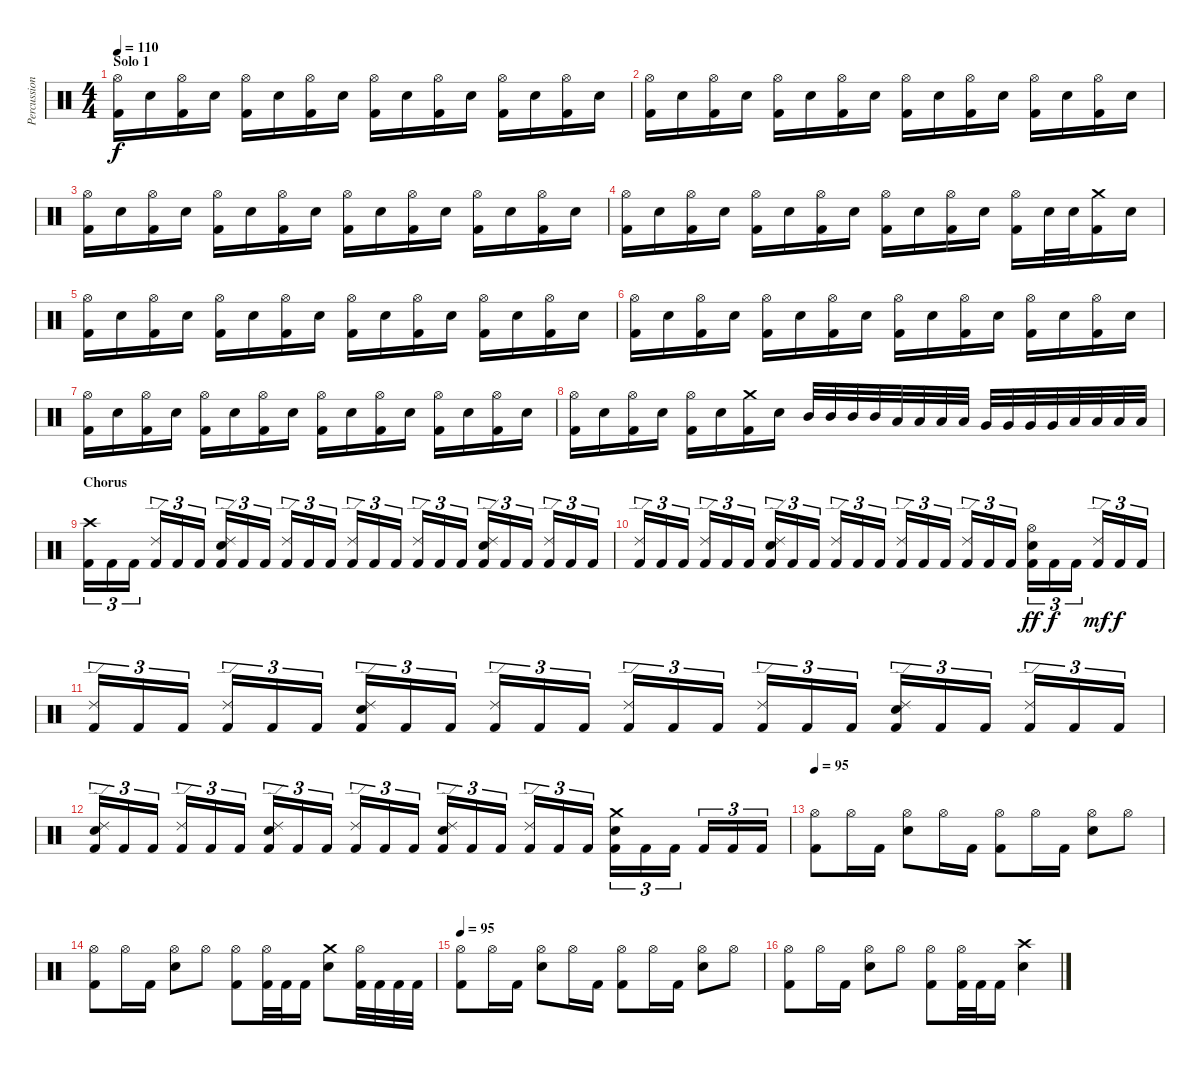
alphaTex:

\track ("Percussions" "Percussion") {instrument percussion}
\staff {score}
\articulation defaults
\ts (4 4)
\section ("" "Solo 1")
\tempo 110
\clef neutral
\ks c
("Hi-Hat (open)" "Kick (hit) 2").16{dy f} "Electric Snare (hit)".16 ("Hi-Hat (open)" "Kick (hit) 2").16 "Electric Snare (hit)".16 ("Hi-Hat (open)" "Kick (hit) 2").16 "Electric Snare (hit)".16 ("Hi-Hat (open)" "Kick (hit) 2").16 "Electric Snare (hit)".16 ("Hi-Hat (open)" "Kick (hit) 2").16 "Electric Snare (hit)".16 ("Hi-Hat (open)" "Kick (hit) 2").16 "Electric Snare (hit)".16 ("Hi-Hat (open)" "Kick (hit) 2").16 "Electric Snare (hit)".16 ("Hi-Hat (open)" "Kick (hit) 2").16 "Electric Snare (hit)".16 |
("Hi-Hat (open)" "Kick (hit) 2").16 "Electric Snare (hit)".16 ("Hi-Hat (open)" "Kick (hit) 2").16 "Electric Snare (hit)".16 ("Hi-Hat (open)" "Kick (hit) 2").16 "Electric Snare (hit)".16 ("Hi-Hat (open)" "Kick (hit) 2").16 "Electric Snare (hit)".16 ("Hi-Hat (open)" "Kick (hit) 2").16 "Electric Snare (hit)".16 ("Hi-Hat (open)" "Kick (hit) 2").16 "Electric Snare (hit)".16 ("Hi-Hat (open)" "Kick (hit) 2").16 "Electric Snare (hit)".16 ("Hi-Hat (open)" "Kick (hit) 2").16 "Electric Snare (hit)".16 |
("Hi-Hat (open)" "Kick (hit) 2").16 "Electric Snare (hit)".16 ("Hi-Hat (open)" "Kick (hit) 2").16 "Electric Snare (hit)".16 ("Hi-Hat (open)" "Kick (hit) 2").16 "Electric Snare (hit)".16 ("Hi-Hat (open)" "Kick (hit) 2").16 "Electric Snare (hit)".16 ("Hi-Hat (open)" "Kick (hit) 2").16 "Electric Snare (hit)".16 ("Hi-Hat (open)" "Kick (hit) 2").16 "Electric Snare (hit)".16 ("Hi-Hat (open)" "Kick (hit) 2").16 "Electric Snare (hit)".16 ("Hi-Hat (open)" "Kick (hit) 2").16 "Electric Snare (hit)".16 |
("Hi-Hat (open)" "Kick (hit) 2").16 "Electric Snare (hit)".16 ("Hi-Hat (open)" "Kick (hit) 2").16 "Electric Snare (hit)".16 ("Hi-Hat (open)" "Kick (hit) 2").16 "Electric Snare (hit)".16 ("Hi-Hat (open)" "Kick (hit) 2").16 "Electric Snare (hit)".16 ("Hi-Hat (open)" "Kick (hit) 2").16 "Electric Snare (hit)".16 ("Hi-Hat (open)" "Kick (hit) 2").16 "Electric Snare (hit)".16 ("Hi-Hat (open)" "Kick (hit) 2").16 "Electric Snare (hit)".32 "Electric Snare (hit)".32 ("Crash medium (hit)" "Kick (hit) 2").16 "Electric Snare (hit)".16 |
("Hi-Hat (open)" "Kick (hit) 2").16 "Electric Snare (hit)".16 ("Hi-Hat (open)" "Kick (hit) 2").16 "Electric Snare (hit)".16 ("Hi-Hat (open)" "Kick (hit) 2").16 "Electric Snare (hit)".16 ("Hi-Hat (open)" "Kick (hit) 2").16 "Electric Snare (hit)".16 ("Hi-Hat (open)" "Kick (hit) 2").16 "Electric Snare (hit)".16 ("Hi-Hat (open)" "Kick (hit) 2").16 "Electric Snare (hit)".16 ("Hi-Hat (open)" "Kick (hit) 2").16 "Electric Snare (hit)".16 ("Hi-Hat (open)" "Kick (hit) 2").16 "Electric Snare (hit)".16 |
("Hi-Hat (open)" "Kick (hit) 2").16 "Electric Snare (hit)".16 ("Hi-Hat (open)" "Kick (hit) 2").16 "Electric Snare (hit)".16 ("Hi-Hat (open)" "Kick (hit) 2").16 "Electric Snare (hit)".16 ("Hi-Hat (open)" "Kick (hit) 2").16 "Electric Snare (hit)".16 ("Hi-Hat (open)" "Kick (hit) 2").16 "Electric Snare (hit)".16 ("Hi-Hat (open)" "Kick (hit) 2").16 "Electric Snare (hit)".16 ("Hi-Hat (open)" "Kick (hit) 2").16 "Electric Snare (hit)".16 ("Hi-Hat (open)" "Kick (hit) 2").16 "Electric Snare (hit)".16 |
("Hi-Hat (open)" "Kick (hit) 2").16 "Electric Snare (hit)".16 ("Hi-Hat (open)" "Kick (hit) 2").16 "Electric Snare (hit)".16 ("Hi-Hat (open)" "Kick (hit) 2").16 "Electric Snare (hit)".16 ("Hi-Hat (open)" "Kick (hit) 2").16 "Electric Snare (hit)".16 ("Hi-Hat (open)" "Kick (hit) 2").16 "Electric Snare (hit)".16 ("Hi-Hat (open)" "Kick (hit) 2").16 "Electric Snare (hit)".16 ("Hi-Hat (open)" "Kick (hit) 2").16 "Electric Snare (hit)".16 ("Hi-Hat (open)" "Kick (hit) 2").16 "Electric Snare (hit)".16 |
("Hi-Hat (open)" "Kick (hit) 2").16 "Electric Snare (hit)".16 ("Hi-Hat (open)" "Kick (hit) 2").16 "Electric Snare (hit)".16 ("Hi-Hat (open)" "Kick (hit) 2").16 "Electric Snare (hit)".16 ("Crash medium (hit)" "Kick (hit) 2").16 "Electric Snare (hit)".16 "Mid Tom (hit)".32 "Mid Tom (hit)".32 "Mid Tom (hit)".32 "Mid Tom (hit)".32 "Low Tom (hit)".32 "Low Tom (hit)".32 "Low Tom (hit)".32 "Low Tom (hit)".32 "Very Low Tom (hit)".32 "Very Low Tom (hit)".32 "Very Low Tom (hit)".32 "Very Low Tom (hit)".32 "Low Floor Tom (hit)".32 "Low Floor Tom (hit)".32 "Low Floor Tom (hit)".32 "Low Floor Tom (hit)".32 |
\section ("" "Chorus")
("Crash high (hit)" "Kick (hit) 2").16{tu (3 2)} "Kick (hit) 2".16{tu (3 2)} "Kick (hit) 2".16{tu (3 2)} ("Ride (edge) 2" "Kick (hit) 2").16{tu (3 2)} "Kick (hit) 2".16{tu (3 2)} "Kick (hit) 2".16{tu (3 2)} ("Ride (edge) 2" "Electric Snare (hit)" "Kick (hit) 2").16{tu (3 2)} "Kick (hit) 2".16{tu (3 2)} "Kick (hit) 2".16{tu (3 2)} ("Ride (edge) 2" "Kick (hit) 2").16{tu (3 2)} "Kick (hit) 2".16{tu (3 2)} "Kick (hit) 2".16{tu (3 2)} ("Ride (edge) 2" "Kick (hit) 2").16{tu (3 2)} "Kick (hit) 2".16{tu (3 2)} "Kick (hit) 2".16{tu (3 2)} ("Ride (edge) 2" "Kick (hit) 2").16{tu (3 2)} "Kick (hit) 2".16{tu (3 2)} "Kick (hit) 2".16{tu (3 2)} ("Ride (edge) 2" "Electric Snare (hit)" "Kick (hit) 2").16{tu (3 2)} "Kick (hit) 2".16{tu (3 2)} "Kick (hit) 2".16{tu (3 2)} ("Ride (edge) 2" "Kick (hit) 2").16{tu (3 2)} "Kick (hit) 2".16{tu (3 2)} "Kick (hit) 2".16{tu (3 2)} |
("Ride (edge) 2" "Kick (hit) 2").16{tu (3 2)} "Kick (hit) 2".16{tu (3 2)} "Kick (hit) 2".16{tu (3 2)} ("Ride (edge) 2" "Kick (hit) 2").16{tu (3 2)} "Kick (hit) 2".16{tu (3 2)} "Kick (hit) 2".16{tu (3 2)} ("Ride (edge) 2" "Electric Snare (hit)" "Kick (hit) 2").16{tu (3 2)} "Kick (hit) 2".16{tu (3 2)} "Kick (hit) 2".16{tu (3 2)} ("Ride (edge) 2" "Kick (hit) 2").16{tu (3 2)} "Kick (hit) 2".16{tu (3 2)} "Kick (hit) 2".16{tu (3 2)} ("Ride (edge) 2" "Kick (hit) 2").16{tu (3 2)} "Kick (hit) 2".16{tu (3 2)} "Kick (hit) 2".16{tu (3 2)} ("Ride (edge) 2" "Kick (hit) 2").16{tu (3 2)} "Kick (hit) 2".16{tu (3 2)} "Kick (hit) 2".16{tu (3 2)} ("Hi-Hat (open)" "Electric Snare (hit)" "Kick (hit) 2").16{tu (3 2) dy ff} "Kick (hit) 2".16{tu (3 2) dy f} "Kick (hit) 2".16{tu (3 2)} ("Ride (edge) 2" "Kick (hit) 2").16{tu (3 2) dy mf} "Kick (hit) 2".16{tu (3 2) dy f} "Kick (hit) 2".16{tu (3 2)} |
("Ride (edge) 2" "Kick (hit) 2").16{tu (3 2)} "Kick (hit) 2".16{tu (3 2)} "Kick (hit) 2".16{tu (3 2)} ("Ride (edge) 2" "Kick (hit) 2").16{tu (3 2)} "Kick (hit) 2".16{tu (3 2)} "Kick (hit) 2".16{tu (3 2)} ("Ride (edge) 2" "Electric Snare (hit)" "Kick (hit) 2").16{tu (3 2)} "Kick (hit) 2".16{tu (3 2)} "Kick (hit) 2".16{tu (3 2)} ("Ride (edge) 2" "Kick (hit) 2").16{tu (3 2)} "Kick (hit) 2".16{tu (3 2)} "Kick (hit) 2".16{tu (3 2)} ("Ride (edge) 2" "Kick (hit) 2").16{tu (3 2)} "Kick (hit) 2".16{tu (3 2)} "Kick (hit) 2".16{tu (3 2)} ("Ride (edge) 2" "Kick (hit) 2").16{tu (3 2)} "Kick (hit) 2".16{tu (3 2)} "Kick (hit) 2".16{tu (3 2)} ("Ride (edge) 2" "Electric Snare (hit)" "Kick (hit) 2").16{tu (3 2)} "Kick (hit) 2".16{tu (3 2)} "Kick (hit) 2".16{tu (3 2)} ("Ride (edge) 2" "Kick (hit) 2").16{tu (3 2)} "Kick (hit) 2".16{tu (3 2)} "Kick (hit) 2".16{tu (3 2)} |
("Ride (edge) 2" "Electric Snare (hit)" "Kick (hit) 2").16{tu (3 2)} "Kick (hit) 2".16{tu (3 2)} "Kick (hit) 2".16{tu (3 2)} ("Ride (edge) 2" "Kick (hit) 2").16{tu (3 2)} "Kick (hit) 2".16{tu (3 2)} "Kick (hit) 2".16{tu (3 2)} ("Ride (edge) 2" "Electric Snare (hit)" "Kick (hit) 2").16{tu (3 2)} "Kick (hit) 2".16{tu (3 2)} "Kick (hit) 2".16{tu (3 2)} ("Ride (edge) 2" "Kick (hit) 2").16{tu (3 2)} "Kick (hit) 2".16{tu (3 2)} "Kick (hit) 2".16{tu (3 2)} ("Ride (edge) 2" "Electric Snare (hit)" "Kick (hit) 2").16{tu (3 2)} "Kick (hit) 2".16{tu (3 2)} "Kick (hit) 2".16{tu (3 2)} ("Ride (edge) 2" "Kick (hit) 2").16{tu (3 2)} "Kick (hit) 2".16{tu (3 2)} "Kick (hit) 2".16{tu (3 2)} ("Crash medium (hit)" "Electric Snare (hit)" "Kick (hit) 2").16{tu (3 2)} "Kick (hit) 2".16{tu (3 2)} "Kick (hit) 2".16{tu (3 2)} "Kick (hit) 2".16{tu (3 2)} "Kick (hit) 2".16{tu (3 2)} "Kick (hit) 2".16{tu (3 2)} |
\tempo 95
("Hi-Hat (open)" "Kick (hit) 2").8 "Hi-Hat (open)".16 "Kick (hit) 2".16 ("Hi-Hat (open)" "Electric Snare (hit)").8 "Hi-Hat (open)".16 "Kick (hit) 2".16 ("Hi-Hat (open)" "Kick (hit) 2").8 "Hi-Hat (open)".16 "Kick (hit) 2".16 ("Hi-Hat (open)" "Electric Snare (hit)").8 "Hi-Hat (open)".8 |
("Hi-Hat (open)" "Kick (hit) 2").8 "Hi-Hat (open)".16 "Kick (hit) 2".16 ("Hi-Hat (open)" "Electric Snare (hit)").8 "Hi-Hat (open)".8 ("Hi-Hat (open)" "Kick (hit) 2").8 ("Hi-Hat (open)" "Kick (hit) 2").32 "Kick (hit) 2".32 "Kick (hit) 2".16 ("Crash medium (hit)" "Electric Snare (hit)").8 ("Hi-Hat (open)" "Kick (hit) 2").32 "Kick (hit) 2".32 "Kick (hit) 2".32 "Kick (hit) 2".32 |
\tempo 95
("Hi-Hat (open)" "Kick (hit) 2").8 "Hi-Hat (open)".16 "Kick (hit) 2".16 ("Hi-Hat (open)" "Electric Snare (hit)").8 "Hi-Hat (open)".16 "Kick (hit) 2".16 ("Hi-Hat (open)" "Kick (hit) 2").8 "Hi-Hat (open)".16 "Kick (hit) 2".16 ("Hi-Hat (open)" "Electric Snare (hit)").8 "Hi-Hat (open)".8 |
("Hi-Hat (open)" "Kick (hit) 2").8 "Hi-Hat (open)".16 "Kick (hit) 2".16 ("Hi-Hat (open)" "Electric Snare (hit)").8 "Hi-Hat (open)".8 ("Hi-Hat (open)" "Kick (hit) 2").8 ("Hi-Hat (open)" "Kick (hit) 2").32 "Kick (hit) 2".32 "Kick (hit) 2".16 ("Crash high (hit)" "Electric Snare (hit)").4
